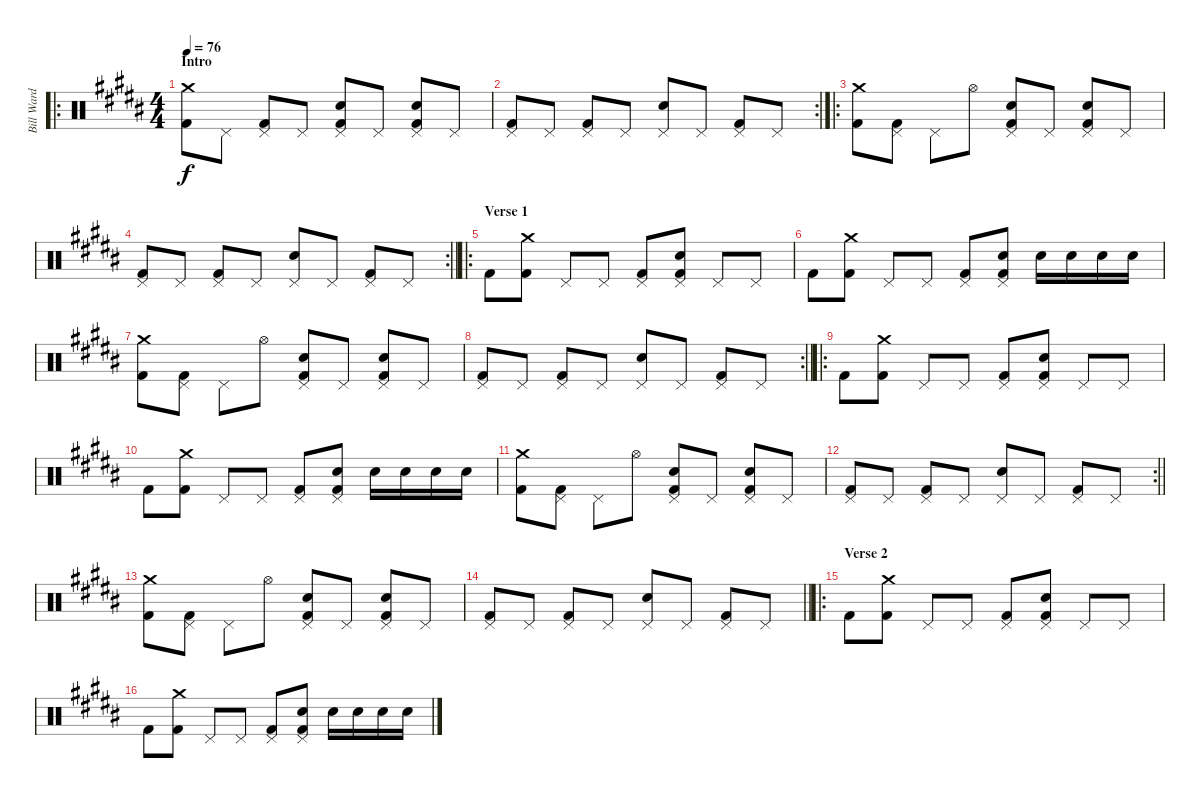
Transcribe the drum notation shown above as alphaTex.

\track ("Bill Ward" "Bill Ward") {instrument percussion}
\staff {score}
\articulation defaults
\ro
\ts (4 4)
\section ("" "Intro")
\tempo 76
\clef neutral
\ks b
("Crash medium (hit)" "Kick (hit) 2").8{dy f} "Pedal Hi-Hat (hit)".8 ("Pedal Hi-Hat (hit)" "Kick (hit) 2").8 "Pedal Hi-Hat (hit)".8 ("Pedal Hi-Hat (hit)" "Snare (hit) 2" "Kick (hit) 2").8 "Pedal Hi-Hat (hit)".8 ("Pedal Hi-Hat (hit)" "Snare (hit) 2" "Kick (hit) 2").8 "Pedal Hi-Hat (hit)".8 |
\rc 2
("Pedal Hi-Hat (hit)" "Kick (hit) 2").8 "Pedal Hi-Hat (hit)".8 ("Pedal Hi-Hat (hit)" "Kick (hit) 2").8 "Pedal Hi-Hat (hit)".8 ("Pedal Hi-Hat (hit)" "Snare (hit) 2").8 "Pedal Hi-Hat (hit)".8 ("Pedal Hi-Hat (hit)" "Kick (hit) 2").8 "Pedal Hi-Hat (hit)".8 |
\ro
("Crash medium (hit)" "Kick (hit) 2").8 ("Pedal Hi-Hat (hit)" "Kick (hit) 2").8 "Pedal Hi-Hat (hit)".8 "Hi-Hat (open)".8 ("Pedal Hi-Hat (hit)" "Snare (hit) 2" "Kick (hit) 2").8 "Pedal Hi-Hat (hit)".8 ("Pedal Hi-Hat (hit)" "Snare (hit) 2" "Kick (hit) 2").8 "Pedal Hi-Hat (hit)".8 |
\rc 2
\barLineRight lightlight
("Pedal Hi-Hat (hit)" "Kick (hit) 2").8 "Pedal Hi-Hat (hit)".8 ("Pedal Hi-Hat (hit)" "Kick (hit) 2").8 "Pedal Hi-Hat (hit)".8 ("Pedal Hi-Hat (hit)" "Snare (hit) 2").8 "Pedal Hi-Hat (hit)".8 ("Pedal Hi-Hat (hit)" "Kick (hit) 2").8 "Pedal Hi-Hat (hit)".8 |
\ro
\section ("" "Verse 1")
"Kick (hit) 2".8 ("Crash medium (hit)" "Kick (hit) 2").8 "Pedal Hi-Hat (hit)".8 "Pedal Hi-Hat (hit)".8 ("Pedal Hi-Hat (hit)" "Kick (hit) 2").8 ("Pedal Hi-Hat (hit)" "Snare (hit) 2" "Kick (hit) 2").8 "Pedal Hi-Hat (hit)".8 "Pedal Hi-Hat (hit)".8 |
"Kick (hit) 2".8 ("Crash medium (hit)" "Kick (hit) 2").8 "Pedal Hi-Hat (hit)".8 "Pedal Hi-Hat (hit)".8 ("Pedal Hi-Hat (hit)" "Kick (hit) 2").8 ("Pedal Hi-Hat (hit)" "Snare (hit) 2" "Kick (hit) 2").8 "Snare (hit) 2".16 "Snare (hit) 2".16 "Snare (hit) 2".16 "Snare (hit) 2".16 |
("Crash medium (hit)" "Kick (hit) 2").8 ("Pedal Hi-Hat (hit)" "Kick (hit) 2").8 "Pedal Hi-Hat (hit)".8 "Hi-Hat (open)".8 ("Pedal Hi-Hat (hit)" "Snare (hit) 2" "Kick (hit) 2").8 "Pedal Hi-Hat (hit)".8 ("Pedal Hi-Hat (hit)" "Snare (hit) 2" "Kick (hit) 2").8 "Pedal Hi-Hat (hit)".8 |
\rc 2
\barLineRight lightlight
("Pedal Hi-Hat (hit)" "Kick (hit) 2").8 "Pedal Hi-Hat (hit)".8 ("Pedal Hi-Hat (hit)" "Kick (hit) 2").8 "Pedal Hi-Hat (hit)".8 ("Pedal Hi-Hat (hit)" "Snare (hit) 2").8 "Pedal Hi-Hat (hit)".8 ("Pedal Hi-Hat (hit)" "Kick (hit) 2").8 "Pedal Hi-Hat (hit)".8 |
\ro "Kick (hit) 2".8
("Crash medium (hit)" "Kick (hit) 2").8 "Pedal Hi-Hat (hit)".8 "Pedal Hi-Hat (hit)".8 ("Pedal Hi-Hat (hit)" "Kick (hit) 2").8 ("Pedal Hi-Hat (hit)" "Snare (hit) 2" "Kick (hit) 2").8 "Pedal Hi-Hat (hit)".8 "Pedal Hi-Hat (hit)".8 |
"Kick (hit) 2".8 ("Crash medium (hit)" "Kick (hit) 2").8 "Pedal Hi-Hat (hit)".8 "Pedal Hi-Hat (hit)".8 ("Pedal Hi-Hat (hit)" "Kick (hit) 2").8 ("Pedal Hi-Hat (hit)" "Snare (hit) 2" "Kick (hit) 2").8 "Snare (hit) 2".16 "Snare (hit) 2".16 "Snare (hit) 2".16 "Snare (hit) 2".16 |
("Crash medium (hit)" "Kick (hit) 2").8 ("Pedal Hi-Hat (hit)" "Kick (hit) 2").8 "Pedal Hi-Hat (hit)".8 "Hi-Hat (open)".8 ("Pedal Hi-Hat (hit)" "Snare (hit) 2" "Kick (hit) 2").8 "Pedal Hi-Hat (hit)".8 ("Pedal Hi-Hat (hit)" "Snare (hit) 2" "Kick (hit) 2").8 "Pedal Hi-Hat (hit)".8 |
\rc 2
\barLineRight lightlight
("Pedal Hi-Hat (hit)" "Kick (hit) 2").8 "Pedal Hi-Hat (hit)".8 ("Pedal Hi-Hat (hit)" "Kick (hit) 2").8 "Pedal Hi-Hat (hit)".8 ("Pedal Hi-Hat (hit)" "Snare (hit) 2").8 "Pedal Hi-Hat (hit)".8 ("Pedal Hi-Hat (hit)" "Kick (hit) 2").8 "Pedal Hi-Hat (hit)".8 |
("Crash medium (hit)" "Kick (hit) 2").8 ("Pedal Hi-Hat (hit)" "Kick (hit) 2").8 "Pedal Hi-Hat (hit)".8 "Hi-Hat (open)".8 ("Pedal Hi-Hat (hit)" "Snare (hit) 2" "Kick (hit) 2").8 "Pedal Hi-Hat (hit)".8 ("Pedal Hi-Hat (hit)" "Snare (hit) 2" "Kick (hit) 2").8 "Pedal Hi-Hat (hit)".8 |
\barLineRight lightlight
("Pedal Hi-Hat (hit)" "Kick (hit) 2").8 "Pedal Hi-Hat (hit)".8 ("Pedal Hi-Hat (hit)" "Kick (hit) 2").8 "Pedal Hi-Hat (hit)".8 ("Pedal Hi-Hat (hit)" "Snare (hit) 2").8 "Pedal Hi-Hat (hit)".8 ("Pedal Hi-Hat (hit)" "Kick (hit) 2").8 "Pedal Hi-Hat (hit)".8 |
\ro
\section ("" "Verse 2")
"Kick (hit) 2".8 ("Crash medium (hit)" "Kick (hit) 2").8 "Pedal Hi-Hat (hit)".8 "Pedal Hi-Hat (hit)".8 ("Pedal Hi-Hat (hit)" "Kick (hit) 2").8 ("Pedal Hi-Hat (hit)" "Snare (hit) 2" "Kick (hit) 2").8 "Pedal Hi-Hat (hit)".8 "Pedal Hi-Hat (hit)".8 |
"Kick (hit) 2".8 ("Crash medium (hit)" "Kick (hit) 2").8 "Pedal Hi-Hat (hit)".8 "Pedal Hi-Hat (hit)".8 ("Pedal Hi-Hat (hit)" "Kick (hit) 2").8 ("Pedal Hi-Hat (hit)" "Snare (hit) 2" "Kick (hit) 2").8 "Snare (hit) 2".16 "Snare (hit) 2".16 "Snare (hit) 2".16 "Snare (hit) 2".16
